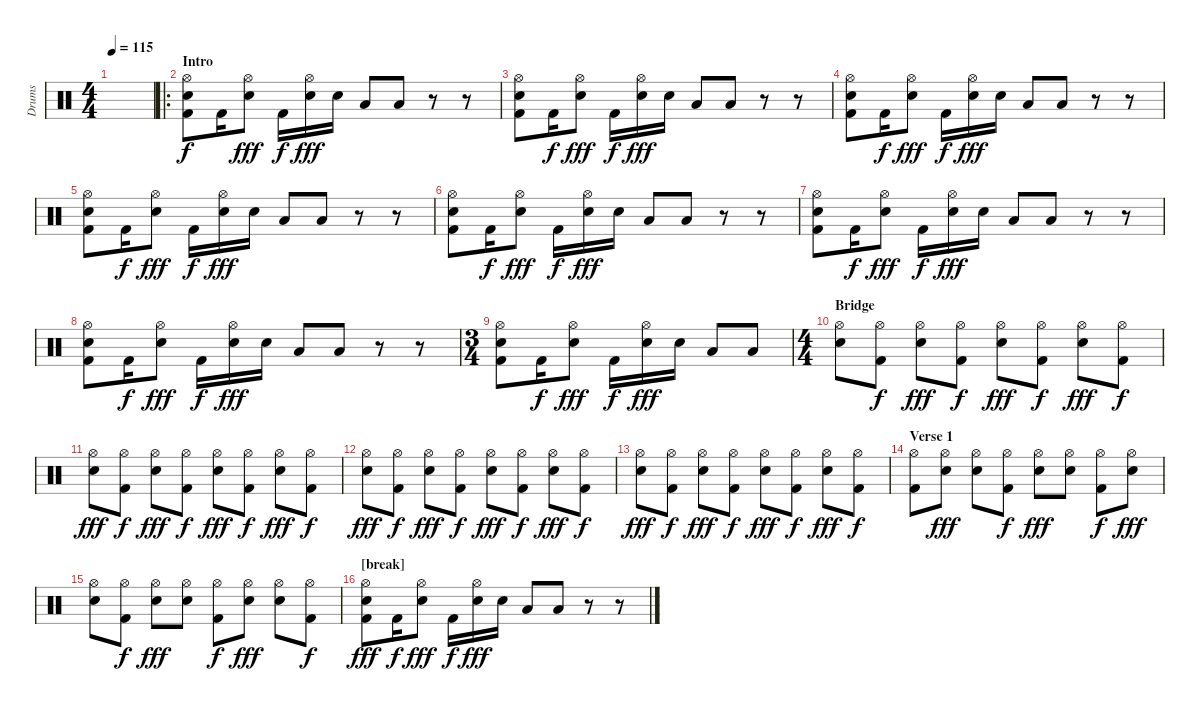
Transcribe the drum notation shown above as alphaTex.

\track ("Drums" "Drums") {instrument percussion}
\staff {score}
\articulation defaults
\ts (4 4)
\tempo 115
\clef neutral
\ks c
|
\ro
\section ("" "Intro")
("Hi-Hat (open)" "Snare (hit) 2" "Kick (hit) 2").8 "Kick (hit) 2".16{dy f} ("Hi-Hat (open)" "Snare (hit) 2").8{dy fff} "Kick (hit) 2".16{dy f} ("Hi-Hat (open)" "Snare (hit) 2").16{dy fff} "Snare (hit) 2".16 "Low Floor Tom (hit)".8 "Low Floor Tom (hit)".8 r.8 r.8 |
("Hi-Hat (open)" "Snare (hit) 2" "Kick (hit) 2").8 "Kick (hit) 2".16{dy f} ("Hi-Hat (open)" "Snare (hit) 2").8{dy fff} "Kick (hit) 2".16{dy f} ("Hi-Hat (open)" "Snare (hit) 2").16{dy fff} "Snare (hit) 2".16 "Low Floor Tom (hit)".8 "Low Floor Tom (hit)".8 r.8 r.8 |
("Hi-Hat (open)" "Snare (hit) 2" "Kick (hit) 2").8 "Kick (hit) 2".16{dy f} ("Hi-Hat (open)" "Snare (hit) 2").8{dy fff} "Kick (hit) 2".16{dy f} ("Hi-Hat (open)" "Snare (hit) 2").16{dy fff} "Snare (hit) 2".16 "Low Floor Tom (hit)".8 "Low Floor Tom (hit)".8 r.8 r.8 |
("Hi-Hat (open)" "Snare (hit) 2" "Kick (hit) 2").8 "Kick (hit) 2".16{dy f} ("Hi-Hat (open)" "Snare (hit) 2").8{dy fff} "Kick (hit) 2".16{dy f} ("Hi-Hat (open)" "Snare (hit) 2").16{dy fff} "Snare (hit) 2".16 "Low Floor Tom (hit)".8 "Low Floor Tom (hit)".8 r.8 r.8 |
("Hi-Hat (open)" "Snare (hit) 2" "Kick (hit) 2").8 "Kick (hit) 2".16{dy f} ("Hi-Hat (open)" "Snare (hit) 2").8{dy fff} "Kick (hit) 2".16{dy f} ("Hi-Hat (open)" "Snare (hit) 2").16{dy fff} "Snare (hit) 2".16 "Low Floor Tom (hit)".8 "Low Floor Tom (hit)".8 r.8 r.8 |
("Hi-Hat (open)" "Snare (hit) 2" "Kick (hit) 2").8 "Kick (hit) 2".16{dy f} ("Hi-Hat (open)" "Snare (hit) 2").8{dy fff} "Kick (hit) 2".16{dy f} ("Hi-Hat (open)" "Snare (hit) 2").16{dy fff} "Snare (hit) 2".16 "Low Floor Tom (hit)".8 "Low Floor Tom (hit)".8 r.8 r.8 |
("Hi-Hat (open)" "Snare (hit) 2" "Kick (hit) 2").8 "Kick (hit) 2".16{dy f} ("Hi-Hat (open)" "Snare (hit) 2").8{dy fff} "Kick (hit) 2".16{dy f} ("Hi-Hat (open)" "Snare (hit) 2").16{dy fff} "Snare (hit) 2".16 "Low Floor Tom (hit)".8 "Low Floor Tom (hit)".8 r.8 r.8 |
\ts (3 4)
("Hi-Hat (open)" "Snare (hit) 2" "Kick (hit) 2").8 "Kick (hit) 2".16{dy f} ("Hi-Hat (open)" "Snare (hit) 2").8{dy fff} "Kick (hit) 2".16{dy f} ("Hi-Hat (open)" "Snare (hit) 2").16{dy fff} "Snare (hit) 2".16 "Low Floor Tom (hit)".8 "Low Floor Tom (hit)".8 |
\ts (4 4)
\section ("" "Bridge")
("Hi-Hat (open)" "Snare (hit) 2").8 ("Hi-Hat (open)" "Kick (hit) 2").8{dy f} ("Hi-Hat (open)" "Snare (hit) 2").8{dy fff} ("Hi-Hat (open)" "Kick (hit) 2").8{dy f} ("Hi-Hat (open)" "Snare (hit) 2").8{dy fff} ("Hi-Hat (open)" "Kick (hit) 2").8{dy f} ("Hi-Hat (open)" "Snare (hit) 2").8{dy fff} ("Hi-Hat (open)" "Kick (hit) 2").8{dy f} |
("Hi-Hat (open)" "Snare (hit) 2").8{dy fff} ("Hi-Hat (open)" "Kick (hit) 2").8{dy f} ("Hi-Hat (open)" "Snare (hit) 2").8{dy fff} ("Hi-Hat (open)" "Kick (hit) 2").8{dy f} ("Hi-Hat (open)" "Snare (hit) 2").8{dy fff} ("Hi-Hat (open)" "Kick (hit) 2").8{dy f} ("Hi-Hat (open)" "Snare (hit) 2").8{dy fff} ("Hi-Hat (open)" "Kick (hit) 2").8{dy f} |
("Hi-Hat (open)" "Snare (hit) 2").8{dy fff} ("Hi-Hat (open)" "Kick (hit) 2").8{dy f} ("Hi-Hat (open)" "Snare (hit) 2").8{dy fff} ("Hi-Hat (open)" "Kick (hit) 2").8{dy f} ("Hi-Hat (open)" "Snare (hit) 2").8{dy fff} ("Hi-Hat (open)" "Kick (hit) 2").8{dy f} ("Hi-Hat (open)" "Snare (hit) 2").8{dy fff} ("Hi-Hat (open)" "Kick (hit) 2").8{dy f} |
("Hi-Hat (open)" "Snare (hit) 2").8{dy fff} ("Hi-Hat (open)" "Kick (hit) 2").8{dy f} ("Hi-Hat (open)" "Snare (hit) 2").8{dy fff} ("Hi-Hat (open)" "Kick (hit) 2").8{dy f} ("Hi-Hat (open)" "Snare (hit) 2").8{dy fff} ("Hi-Hat (open)" "Kick (hit) 2").8{dy f} ("Hi-Hat (open)" "Snare (hit) 2").8{dy fff} ("Hi-Hat (open)" "Kick (hit) 2").8{dy f} |
\section ("" "Verse 1")
("Hi-Hat (open)" "Kick (hit) 2").8 ("Hi-Hat (open)" "Snare (hit) 2").8{dy fff} ("Hi-Hat (open)" "Snare (hit) 2").8 ("Hi-Hat (open)" "Kick (hit) 2").8{dy f} ("Hi-Hat (open)" "Snare (hit) 2").8{dy fff} ("Hi-Hat (open)" "Snare (hit) 2").8 ("Hi-Hat (open)" "Kick (hit) 2").8{dy f} ("Hi-Hat (open)" "Snare (hit) 2").8{dy fff} |
("Hi-Hat (open)" "Snare (hit) 2").8 ("Hi-Hat (open)" "Kick (hit) 2").8{dy f} ("Hi-Hat (open)" "Snare (hit) 2").8{dy fff} ("Hi-Hat (open)" "Snare (hit) 2").8 ("Hi-Hat (open)" "Kick (hit) 2").8{dy f} ("Hi-Hat (open)" "Snare (hit) 2").8{dy fff} ("Hi-Hat (open)" "Snare (hit) 2").8 ("Hi-Hat (open)" "Kick (hit) 2").8{dy f} |
\section ("" "[break]")
("Hi-Hat (open)" "Snare (hit) 2" "Kick (hit) 2").8{dy fff} "Kick (hit) 2".16{dy f} ("Hi-Hat (open)" "Snare (hit) 2").8{dy fff} "Kick (hit) 2".16{dy f} ("Hi-Hat (open)" "Snare (hit) 2").16{dy fff} "Snare (hit) 2".16 "Low Floor Tom (hit)".8 "Low Floor Tom (hit)".8 r.8 r.8
